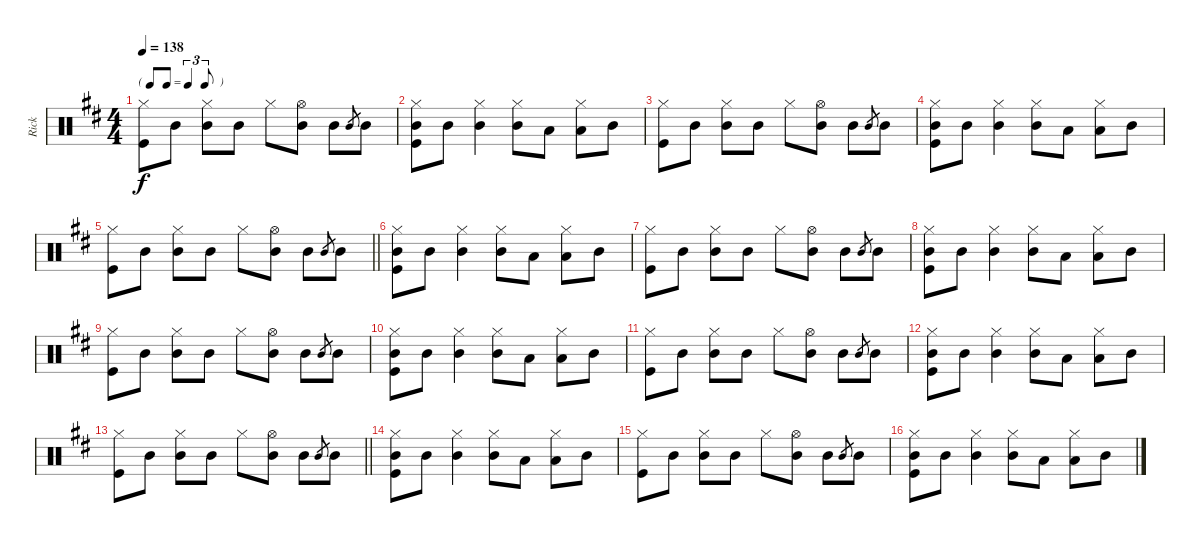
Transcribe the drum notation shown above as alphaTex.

\track ("Rick" "Rick") {instrument percussion}
\staff {score}
\articulation defaults
\ts (4 4)
\tf triplet8th
\tempo 138
\clef neutral
\ks d
("Hi-Hat (closed)" "Kick (hit)").8{dy f} "Mid Tom (hit)".8 ("Hi-Hat (closed)" "Mid Tom (hit)").8 "Mid Tom (hit)".8 "Hi-Hat (closed)".8 ("Hi-Hat (open)" "Mid Tom (hit)").8 "Mid Tom (hit)".8 "Mid Tom (hit)".8{gr} "Mid Tom (hit)".8 |
("Hi-Hat (closed)" "Mid Tom (hit)" "Kick (hit)").8 "Mid Tom (hit)".8 ("Hi-Hat (closed)" "Mid Tom (hit)").4 ("Hi-Hat (closed)" "Mid Tom (hit)").8 "Low Tom (hit)".8 ("Hi-Hat (closed)" "Low Tom (hit)").8 "Mid Tom (hit)".8 |
("Hi-Hat (closed)" "Kick (hit)").8 "Mid Tom (hit)".8 ("Hi-Hat (closed)" "Mid Tom (hit)").8 "Mid Tom (hit)".8 "Hi-Hat (closed)".8 ("Hi-Hat (open)" "Mid Tom (hit)").8 "Mid Tom (hit)".8 "Mid Tom (hit)".8{gr} "Mid Tom (hit)".8 |
("Hi-Hat (closed)" "Mid Tom (hit)" "Kick (hit)").8 "Mid Tom (hit)".8 ("Hi-Hat (closed)" "Mid Tom (hit)").4 ("Hi-Hat (closed)" "Mid Tom (hit)").8 "Low Tom (hit)".8 ("Hi-Hat (closed)" "Low Tom (hit)").8 "Mid Tom (hit)".8 |
\barLineRight lightlight
("Hi-Hat (closed)" "Kick (hit)").8 "Mid Tom (hit)".8 ("Hi-Hat (closed)" "Mid Tom (hit)").8 "Mid Tom (hit)".8 "Hi-Hat (closed)".8 ("Hi-Hat (open)" "Mid Tom (hit)").8 "Mid Tom (hit)".8 "Mid Tom (hit)".8{gr} "Mid Tom (hit)".8 |
("Hi-Hat (closed)" "Mid Tom (hit)" "Kick (hit)").8 "Mid Tom (hit)".8 ("Hi-Hat (closed)" "Mid Tom (hit)").4 ("Hi-Hat (closed)" "Mid Tom (hit)").8 "Low Tom (hit)".8 ("Hi-Hat (closed)" "Low Tom (hit)").8 "Mid Tom (hit)".8 |
("Hi-Hat (closed)" "Kick (hit)").8 "Mid Tom (hit)".8 ("Hi-Hat (closed)" "Mid Tom (hit)").8 "Mid Tom (hit)".8 "Hi-Hat (closed)".8 ("Hi-Hat (open)" "Mid Tom (hit)").8 "Mid Tom (hit)".8 "Mid Tom (hit)".8{gr} "Mid Tom (hit)".8 |
("Hi-Hat (closed)" "Mid Tom (hit)" "Kick (hit)").8 "Mid Tom (hit)".8 ("Hi-Hat (closed)" "Mid Tom (hit)").4 ("Hi-Hat (closed)" "Mid Tom (hit)").8 "Low Tom (hit)".8 ("Hi-Hat (closed)" "Low Tom (hit)").8 "Mid Tom (hit)".8 |
("Hi-Hat (closed)" "Kick (hit)").8 "Mid Tom (hit)".8 ("Hi-Hat (closed)" "Mid Tom (hit)").8 "Mid Tom (hit)".8 "Hi-Hat (closed)".8 ("Hi-Hat (open)" "Mid Tom (hit)").8 "Mid Tom (hit)".8 "Mid Tom (hit)".8{gr} "Mid Tom (hit)".8 |
("Hi-Hat (closed)" "Mid Tom (hit)" "Kick (hit)").8 "Mid Tom (hit)".8 ("Hi-Hat (closed)" "Mid Tom (hit)").4 ("Hi-Hat (closed)" "Mid Tom (hit)").8 "Low Tom (hit)".8 ("Hi-Hat (closed)" "Low Tom (hit)").8 "Mid Tom (hit)".8 |
("Hi-Hat (closed)" "Kick (hit)").8 "Mid Tom (hit)".8 ("Hi-Hat (closed)" "Mid Tom (hit)").8 "Mid Tom (hit)".8 "Hi-Hat (closed)".8 ("Hi-Hat (open)" "Mid Tom (hit)").8 "Mid Tom (hit)".8 "Mid Tom (hit)".8{gr} "Mid Tom (hit)".8 |
("Hi-Hat (closed)" "Mid Tom (hit)" "Kick (hit)").8 "Mid Tom (hit)".8 ("Hi-Hat (closed)" "Mid Tom (hit)").4 ("Hi-Hat (closed)" "Mid Tom (hit)").8 "Low Tom (hit)".8 ("Hi-Hat (closed)" "Low Tom (hit)").8 "Mid Tom (hit)".8 |
\barLineRight lightlight
("Hi-Hat (closed)" "Kick (hit)").8 "Mid Tom (hit)".8 ("Hi-Hat (closed)" "Mid Tom (hit)").8 "Mid Tom (hit)".8 "Hi-Hat (closed)".8 ("Hi-Hat (open)" "Mid Tom (hit)").8 "Mid Tom (hit)".8 "Mid Tom (hit)".8{gr} "Mid Tom (hit)".8 |
("Hi-Hat (closed)" "Mid Tom (hit)" "Kick (hit)").8 "Mid Tom (hit)".8 ("Hi-Hat (closed)" "Mid Tom (hit)").4 ("Hi-Hat (closed)" "Mid Tom (hit)").8 "Low Tom (hit)".8 ("Hi-Hat (closed)" "Low Tom (hit)").8 "Mid Tom (hit)".8 |
("Hi-Hat (closed)" "Kick (hit)").8 "Mid Tom (hit)".8 ("Hi-Hat (closed)" "Mid Tom (hit)").8 "Mid Tom (hit)".8 "Hi-Hat (closed)".8 ("Hi-Hat (open)" "Mid Tom (hit)").8 "Mid Tom (hit)".8 "Mid Tom (hit)".8{gr} "Mid Tom (hit)".8 |
("Hi-Hat (closed)" "Mid Tom (hit)" "Kick (hit)").8 "Mid Tom (hit)".8 ("Hi-Hat (closed)" "Mid Tom (hit)").4 ("Hi-Hat (closed)" "Mid Tom (hit)").8 "Low Tom (hit)".8 ("Hi-Hat (closed)" "Low Tom (hit)").8 "Mid Tom (hit)".8
